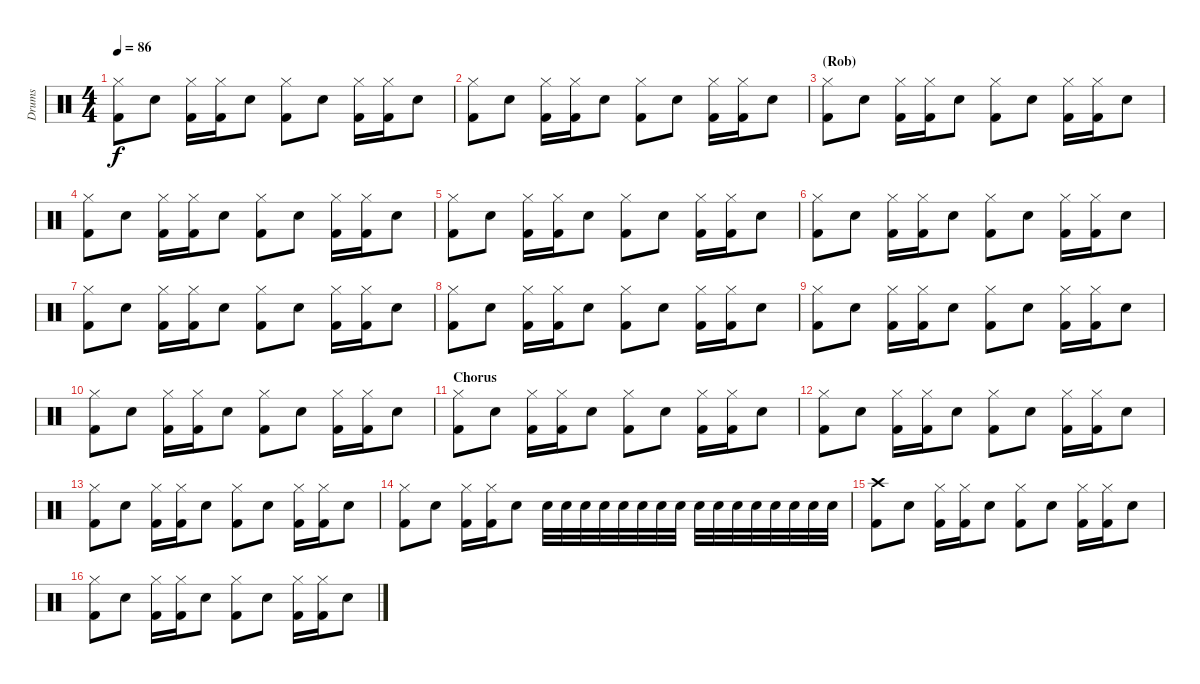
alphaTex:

\track ("Drums" "Drums") {instrument percussion}
\staff {score}
\articulation defaults
\ts (4 4)
\tempo 86
\clef neutral
\ks c
("Hi-Hat (closed)" "Kick (hit) 2").8{dy f} "Electric Snare (hit)".8 ("Hi-Hat (closed)" "Kick (hit) 2").16 ("Hi-Hat (closed)" "Kick (hit) 2").16 "Electric Snare (hit)".8 ("Hi-Hat (closed)" "Kick (hit) 2").8 "Electric Snare (hit)".8 ("Hi-Hat (closed)" "Kick (hit) 2").16 ("Hi-Hat (closed)" "Kick (hit) 2").16 "Electric Snare (hit)".8 |
("Hi-Hat (closed)" "Kick (hit) 2").8 "Electric Snare (hit)".8 ("Hi-Hat (closed)" "Kick (hit) 2").16 ("Hi-Hat (closed)" "Kick (hit) 2").16 "Electric Snare (hit)".8 ("Hi-Hat (closed)" "Kick (hit) 2").8 "Electric Snare (hit)".8 ("Hi-Hat (closed)" "Kick (hit) 2").16 ("Hi-Hat (closed)" "Kick (hit) 2").16 "Electric Snare (hit)".8 |
\section ("" "(Rob)")
("Hi-Hat (closed)" "Kick (hit) 2").8 "Electric Snare (hit)".8 ("Hi-Hat (closed)" "Kick (hit) 2").16 ("Hi-Hat (closed)" "Kick (hit) 2").16 "Electric Snare (hit)".8 ("Hi-Hat (closed)" "Kick (hit) 2").8 "Electric Snare (hit)".8 ("Hi-Hat (closed)" "Kick (hit) 2").16 ("Hi-Hat (closed)" "Kick (hit) 2").16 "Electric Snare (hit)".8 |
("Hi-Hat (closed)" "Kick (hit) 2").8 "Electric Snare (hit)".8 ("Hi-Hat (closed)" "Kick (hit) 2").16 ("Hi-Hat (closed)" "Kick (hit) 2").16 "Electric Snare (hit)".8 ("Hi-Hat (closed)" "Kick (hit) 2").8 "Electric Snare (hit)".8 ("Hi-Hat (closed)" "Kick (hit) 2").16 ("Hi-Hat (closed)" "Kick (hit) 2").16 "Electric Snare (hit)".8 |
("Hi-Hat (closed)" "Kick (hit) 2").8 "Electric Snare (hit)".8 ("Hi-Hat (closed)" "Kick (hit) 2").16 ("Hi-Hat (closed)" "Kick (hit) 2").16 "Electric Snare (hit)".8 ("Hi-Hat (closed)" "Kick (hit) 2").8 "Electric Snare (hit)".8 ("Hi-Hat (closed)" "Kick (hit) 2").16 ("Hi-Hat (closed)" "Kick (hit) 2").16 "Electric Snare (hit)".8 |
("Hi-Hat (closed)" "Kick (hit) 2").8 "Electric Snare (hit)".8 ("Hi-Hat (closed)" "Kick (hit) 2").16 ("Hi-Hat (closed)" "Kick (hit) 2").16 "Electric Snare (hit)".8 ("Hi-Hat (closed)" "Kick (hit) 2").8 "Electric Snare (hit)".8 ("Hi-Hat (closed)" "Kick (hit) 2").16 ("Hi-Hat (closed)" "Kick (hit) 2").16 "Electric Snare (hit)".8 |
("Hi-Hat (closed)" "Kick (hit) 2").8 "Electric Snare (hit)".8 ("Hi-Hat (closed)" "Kick (hit) 2").16 ("Hi-Hat (closed)" "Kick (hit) 2").16 "Electric Snare (hit)".8 ("Hi-Hat (closed)" "Kick (hit) 2").8 "Electric Snare (hit)".8 ("Hi-Hat (closed)" "Kick (hit) 2").16 ("Hi-Hat (closed)" "Kick (hit) 2").16 "Electric Snare (hit)".8 |
("Hi-Hat (closed)" "Kick (hit) 2").8 "Electric Snare (hit)".8 ("Hi-Hat (closed)" "Kick (hit) 2").16 ("Hi-Hat (closed)" "Kick (hit) 2").16 "Electric Snare (hit)".8 ("Hi-Hat (closed)" "Kick (hit) 2").8 "Electric Snare (hit)".8 ("Hi-Hat (closed)" "Kick (hit) 2").16 ("Hi-Hat (closed)" "Kick (hit) 2").16 "Electric Snare (hit)".8 |
("Hi-Hat (closed)" "Kick (hit) 2").8 "Electric Snare (hit)".8 ("Hi-Hat (closed)" "Kick (hit) 2").16 ("Hi-Hat (closed)" "Kick (hit) 2").16 "Electric Snare (hit)".8 ("Hi-Hat (closed)" "Kick (hit) 2").8 "Electric Snare (hit)".8 ("Hi-Hat (closed)" "Kick (hit) 2").16 ("Hi-Hat (closed)" "Kick (hit) 2").16 "Electric Snare (hit)".8 |
("Hi-Hat (closed)" "Kick (hit) 2").8 "Electric Snare (hit)".8 ("Hi-Hat (closed)" "Kick (hit) 2").16 ("Hi-Hat (closed)" "Kick (hit) 2").16 "Electric Snare (hit)".8 ("Hi-Hat (closed)" "Kick (hit) 2").8 "Electric Snare (hit)".8 ("Hi-Hat (closed)" "Kick (hit) 2").16 ("Hi-Hat (closed)" "Kick (hit) 2").16 "Electric Snare (hit)".8 |
\section ("" "Chorus")
("Hi-Hat (closed)" "Kick (hit) 2").8 "Electric Snare (hit)".8 ("Hi-Hat (closed)" "Kick (hit) 2").16 ("Hi-Hat (closed)" "Kick (hit) 2").16 "Electric Snare (hit)".8 ("Hi-Hat (closed)" "Kick (hit) 2").8 "Electric Snare (hit)".8 ("Hi-Hat (closed)" "Kick (hit) 2").16 ("Hi-Hat (closed)" "Kick (hit) 2").16 "Electric Snare (hit)".8 |
("Hi-Hat (closed)" "Kick (hit) 2").8 "Electric Snare (hit)".8 ("Hi-Hat (closed)" "Kick (hit) 2").16 ("Hi-Hat (closed)" "Kick (hit) 2").16 "Electric Snare (hit)".8 ("Hi-Hat (closed)" "Kick (hit) 2").8 "Electric Snare (hit)".8 ("Hi-Hat (closed)" "Kick (hit) 2").16 ("Hi-Hat (closed)" "Kick (hit) 2").16 "Electric Snare (hit)".8 |
("Hi-Hat (closed)" "Kick (hit) 2").8 "Electric Snare (hit)".8 ("Hi-Hat (closed)" "Kick (hit) 2").16 ("Hi-Hat (closed)" "Kick (hit) 2").16 "Electric Snare (hit)".8 ("Hi-Hat (closed)" "Kick (hit) 2").8 "Electric Snare (hit)".8 ("Hi-Hat (closed)" "Kick (hit) 2").16 ("Hi-Hat (closed)" "Kick (hit) 2").16 "Electric Snare (hit)".8 |
("Hi-Hat (closed)" "Kick (hit) 2").8 "Electric Snare (hit)".8 ("Hi-Hat (closed)" "Kick (hit) 2").16 ("Hi-Hat (closed)" "Kick (hit) 2").16 "Electric Snare (hit)".8 "Electric Snare (hit)".32 "Electric Snare (hit)".32 "Electric Snare (hit)".32 "Electric Snare (hit)".32 "Electric Snare (hit)".32 "Electric Snare (hit)".32 "Electric Snare (hit)".32 "Electric Snare (hit)".32 "Electric Snare (hit)".32 "Electric Snare (hit)".32 "Electric Snare (hit)".32 "Electric Snare (hit)".32 "Electric Snare (hit)".32 "Electric Snare (hit)".32 "Electric Snare (hit)".32 "Electric Snare (hit)".32 |
("Crash high (hit)" "Kick (hit) 2").8 "Electric Snare (hit)".8 ("Hi-Hat (closed)" "Kick (hit) 2").16 ("Hi-Hat (closed)" "Kick (hit) 2").16 "Electric Snare (hit)".8 ("Hi-Hat (closed)" "Kick (hit) 2").8 "Electric Snare (hit)".8 ("Hi-Hat (closed)" "Kick (hit) 2").16 ("Hi-Hat (closed)" "Kick (hit) 2").16 "Electric Snare (hit)".8 |
("Hi-Hat (closed)" "Kick (hit) 2").8 "Electric Snare (hit)".8 ("Hi-Hat (closed)" "Kick (hit) 2").16 ("Hi-Hat (closed)" "Kick (hit) 2").16 "Electric Snare (hit)".8 ("Hi-Hat (closed)" "Kick (hit) 2").8 "Electric Snare (hit)".8 ("Hi-Hat (closed)" "Kick (hit) 2").16 ("Hi-Hat (closed)" "Kick (hit) 2").16 "Electric Snare (hit)".8
